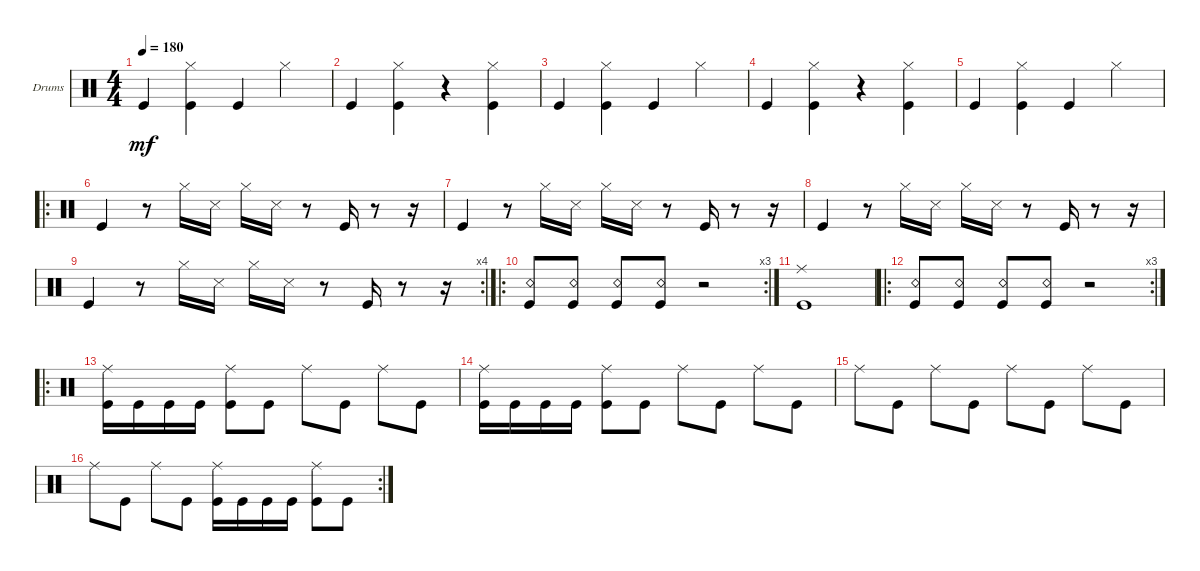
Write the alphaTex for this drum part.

\defaultSystemsLayout 4
\bracketExtendMode groupsimilarinstruments
\firstSystemTrackNameOrientation horizontal
\otherSystemsTrackNameOrientation horizontal
\track ("Drumkit" "Drums") {instrument percussion}
\staff {score}
\articulation defaults
\ts (4 4)
\tempo 180
\clef neutral
\ks c "Kick (hit)".4{dy mf}
("Kick (hit)" "Hi-Hat (closed)").4 "Kick (hit)".4 "Hi-Hat (closed)".4 |
"Kick (hit)".4 ("Kick (hit)" "Hi-Hat (closed)").4 r.4 ("Kick (hit)" "Hi-Hat (closed)").4 |
"Kick (hit)".4 ("Kick (hit)" "Hi-Hat (closed)").4 "Kick (hit)".4 "Hi-Hat (closed)".4 |
"Kick (hit)".4 ("Kick (hit)" "Hi-Hat (closed)").4 r.4 ("Kick (hit)" "Hi-Hat (closed)").4 |
"Kick (hit)".4 ("Kick (hit)" "Hi-Hat (closed)").4 "Kick (hit)".4 "Hi-Hat (closed)".4 |
\ro "Kick (hit)".4
r.8 "Hi-Hat (closed)".16 "Snare (side stick) 3".16 "Hi-Hat (closed)".16 "Snare (side stick) 3".16 r.8 "Kick (hit)".16 r.8 r.16 |
"Kick (hit)".4 r.8 "Hi-Hat (closed)".16 "Snare (side stick) 3".16 "Hi-Hat (closed)".16 "Snare (side stick) 3".16 r.8 "Kick (hit)".16 r.8 r.16 |
"Kick (hit)".4 r.8 "Hi-Hat (closed)".16 "Snare (side stick) 3".16 "Hi-Hat (closed)".16 "Snare (side stick) 3".16 r.8 "Kick (hit)".16 r.8 r.16 |
\rc 4 "Kick (hit)".4
r.8 "Hi-Hat (closed)".16 "Snare (side stick) 3".16 "Hi-Hat (closed)".16 "Snare (side stick) 3".16 r.8 "Kick (hit)".16 r.8 r.16 |
\ro
\rc 3
("Snare (rim shot)" "Kick (hit)").8 ("Snare (rim shot)" "Kick (hit)").8 ("Snare (rim shot)" "Kick (hit)").8 ("Snare (rim shot)" "Kick (hit)").8 r.2 |
("Kick (hit)" "Ride (middle)").1 |
\ro
\rc 3
("Kick (hit)" "Snare (rim shot)").8 ("Kick (hit)" "Snare (rim shot)").8 ("Kick (hit)" "Snare (rim shot)").8 ("Kick (hit)" "Snare (rim shot)").8 r.2 |
\ro
("Kick (hit)" "Ride (middle)").16 "Kick (hit)".16 "Kick (hit)".16 "Kick (hit)".16 ("Kick (hit)" "Ride (middle)").8 "Kick (hit)".8 "Ride (middle)".8 "Kick (hit)".8 "Ride (middle)".8 "Kick (hit)".8 |
("Kick (hit)" "Ride (middle)").16 "Kick (hit)".16 "Kick (hit)".16 "Kick (hit)".16 ("Kick (hit)" "Ride (middle)").8 "Kick (hit)".8 "Ride (middle)".8 "Kick (hit)".8 "Ride (middle)".8 "Kick (hit)".8 |
"Ride (middle)".8 "Kick (hit)".8 "Ride (middle)".8 "Kick (hit)".8 "Ride (middle)".8 "Kick (hit)".8 "Ride (middle)".8 "Kick (hit)".8 |
\rc 2 "Ride (middle)".8 "Kick (hit)".8 "Ride (middle)".8 "Kick (hit)".8
("Kick (hit)" "Ride (middle)").16 "Kick (hit)".16 "Kick (hit)".16 "Kick (hit)".16 ("Kick (hit)" "Ride (middle)").8 "Kick (hit)".8
